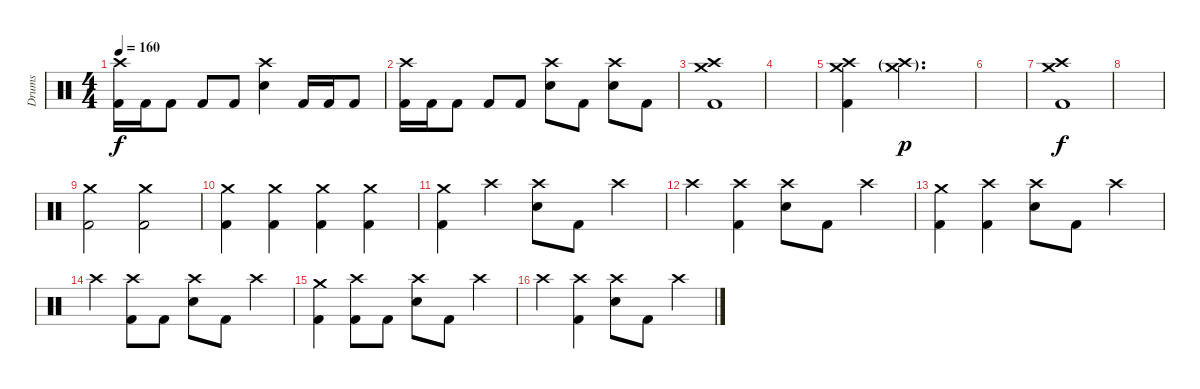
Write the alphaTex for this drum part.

\track ("Drums" "Drums") {instrument percussion}
\staff
\articulation defaults
\ts (4 4)
\tempo 160
\clef neutral
\ks c
("Crash high (hit)" "Kick (hit) 2").16{dy f} "Kick (hit) 2".16 "Kick (hit) 2".8 "Kick (hit) 2".8 "Kick (hit) 2".8 ("Crash high (hit)" "Electric Snare (hit)").4 "Kick (hit) 2".16 "Kick (hit) 2".16 "Kick (hit) 2".8 |
("Crash high (hit)" "Kick (hit) 2").16 "Kick (hit) 2".16 "Kick (hit) 2".8 "Kick (hit) 2".8 "Kick (hit) 2".8 ("Crash high (hit)" "Electric Snare (hit)").8 "Kick (hit) 2".8 ("Crash high (hit)" "Electric Snare (hit)").8 "Kick (hit) 2".8 |
("Crash medium (hit)" "Crash high (hit)" "Kick (hit) 2").1 |
|
("Crash medium (hit)" "Crash high (hit)" "Kick (hit) 2").4 ("Crash medium (hit)"{g} "Crash high (hit)"{g}).2{d dy p} |
|
("Crash medium (hit)" "Crash high (hit)" "Kick (hit) 2").1{dy f} |
|
("Crash medium (hit)" "Kick (hit) 2").2 ("Crash medium (hit)" "Kick (hit) 2").2 |
("Crash medium (hit)" "Kick (hit) 2").4 ("Crash medium (hit)" "Kick (hit) 2").4 ("Crash medium (hit)" "Kick (hit) 2").4 ("Crash medium (hit)" "Kick (hit) 2").4 |
("Crash medium (hit)" "Kick (hit) 2").4 "Crash high (hit)".4 ("Crash high (hit)" "Electric Snare (hit)").8 "Kick (hit) 2".8 "Crash high (hit)".4 |
"Crash high (hit)".4 ("Crash high (hit)" "Kick (hit) 2").4 ("Crash high (hit)" "Electric Snare (hit)").8 "Kick (hit) 2".8 "Crash high (hit)".4 |
("Crash medium (hit)" "Kick (hit) 2").4 ("Crash high (hit)" "Kick (hit) 2").4 ("Crash high (hit)" "Electric Snare (hit)").8 "Kick (hit) 2".8 "Crash high (hit)".4 |
"Crash high (hit)".4 ("Crash high (hit)" "Kick (hit) 2").8 "Kick (hit) 2".8 ("Crash high (hit)" "Electric Snare (hit)").8 "Kick (hit) 2".8 "Crash high (hit)".4 |
("Crash medium (hit)" "Kick (hit) 2").4 ("Crash high (hit)" "Kick (hit) 2").8 "Kick (hit) 2".8 ("Crash high (hit)" "Electric Snare (hit)").8 "Kick (hit) 2".8 "Crash high (hit)".4 |
"Crash high (hit)".4 ("Crash high (hit)" "Kick (hit) 2").4 ("Crash high (hit)" "Electric Snare (hit)").8 "Kick (hit) 2".8 "Crash high (hit)".4
